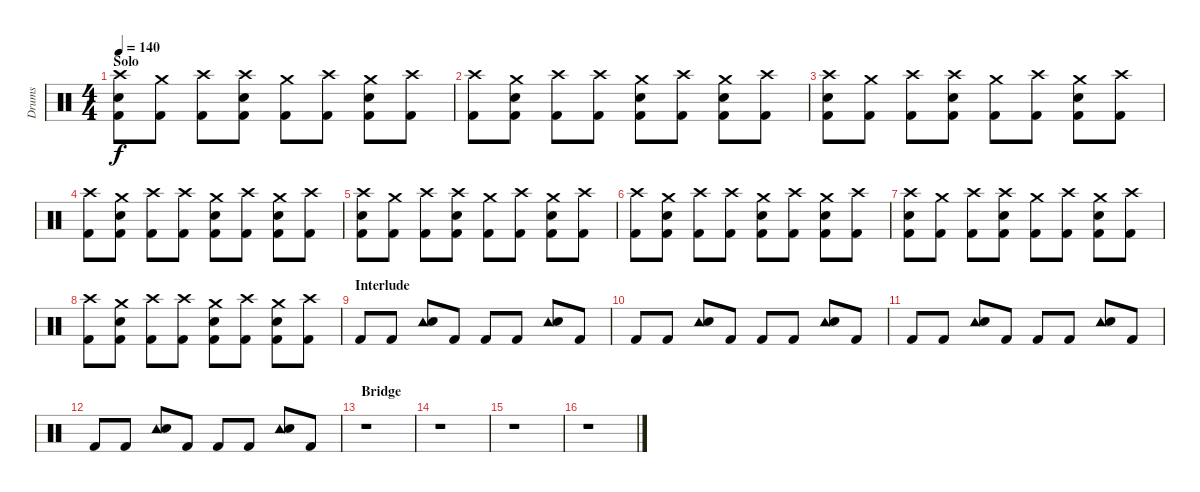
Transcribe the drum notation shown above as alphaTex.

\track ("Drums" "Drums") {instrument percussion}
\staff {score}
\articulation defaults
\ts (4 4)
\section ("" "Solo")
\tempo 140
\clef neutral
\ks c
("Crash high (hit)" "Electric Snare (hit)" "Kick (hit) 2").8{dy f} ("Crash medium (hit)" "Kick (hit) 2").8 ("Crash high (hit)" "Kick (hit) 2").8 ("Crash high (hit)" "Electric Snare (hit)" "Kick (hit) 2").8 ("Crash medium (hit)" "Kick (hit) 2").8 ("Crash high (hit)" "Kick (hit) 2").8 ("Crash medium (hit)" "Electric Snare (hit)" "Kick (hit) 2").8 ("Crash high (hit)" "Kick (hit) 2").8 |
("Crash high (hit)" "Kick (hit) 2").8 ("Crash medium (hit)" "Electric Snare (hit)" "Kick (hit) 2").8 ("Crash high (hit)" "Kick (hit) 2").8 ("Crash high (hit)" "Kick (hit) 2").8 ("Crash medium (hit)" "Electric Snare (hit)" "Kick (hit) 2").8 ("Crash high (hit)" "Kick (hit) 2").8 ("Crash medium (hit)" "Electric Snare (hit)" "Kick (hit) 2").8 ("Crash high (hit)" "Kick (hit) 2").8 |
("Crash high (hit)" "Electric Snare (hit)" "Kick (hit) 2").8 ("Crash medium (hit)" "Kick (hit) 2").8 ("Crash high (hit)" "Kick (hit) 2").8 ("Crash high (hit)" "Electric Snare (hit)" "Kick (hit) 2").8 ("Crash medium (hit)" "Kick (hit) 2").8 ("Crash high (hit)" "Kick (hit) 2").8 ("Crash medium (hit)" "Electric Snare (hit)" "Kick (hit) 2").8 ("Crash high (hit)" "Kick (hit) 2").8 |
("Crash high (hit)" "Kick (hit) 2").8 ("Crash medium (hit)" "Electric Snare (hit)" "Kick (hit) 2").8 ("Crash high (hit)" "Kick (hit) 2").8 ("Crash high (hit)" "Kick (hit) 2").8 ("Crash medium (hit)" "Electric Snare (hit)" "Kick (hit) 2").8 ("Crash high (hit)" "Kick (hit) 2").8 ("Crash medium (hit)" "Electric Snare (hit)" "Kick (hit) 2").8 ("Crash high (hit)" "Kick (hit) 2").8 |
("Crash high (hit)" "Electric Snare (hit)" "Kick (hit) 2").8 ("Crash medium (hit)" "Kick (hit) 2").8 ("Crash high (hit)" "Kick (hit) 2").8 ("Crash high (hit)" "Electric Snare (hit)" "Kick (hit) 2").8 ("Crash medium (hit)" "Kick (hit) 2").8 ("Crash high (hit)" "Kick (hit) 2").8 ("Crash medium (hit)" "Electric Snare (hit)" "Kick (hit) 2").8 ("Crash high (hit)" "Kick (hit) 2").8 |
("Crash high (hit)" "Kick (hit) 2").8 ("Crash medium (hit)" "Electric Snare (hit)" "Kick (hit) 2").8 ("Crash high (hit)" "Kick (hit) 2").8 ("Crash high (hit)" "Kick (hit) 2").8 ("Crash medium (hit)" "Electric Snare (hit)" "Kick (hit) 2").8 ("Crash high (hit)" "Kick (hit) 2").8 ("Crash medium (hit)" "Electric Snare (hit)" "Kick (hit) 2").8 ("Crash high (hit)" "Kick (hit) 2").8 |
("Crash high (hit)" "Electric Snare (hit)" "Kick (hit) 2").8 ("Crash medium (hit)" "Kick (hit) 2").8 ("Crash high (hit)" "Kick (hit) 2").8 ("Crash high (hit)" "Electric Snare (hit)" "Kick (hit) 2").8 ("Crash medium (hit)" "Kick (hit) 2").8 ("Crash high (hit)" "Kick (hit) 2").8 ("Crash medium (hit)" "Electric Snare (hit)" "Kick (hit) 2").8 ("Crash high (hit)" "Kick (hit) 2").8 |
("Crash high (hit)" "Kick (hit) 2").8 ("Crash medium (hit)" "Electric Snare (hit)" "Kick (hit) 2").8 ("Crash high (hit)" "Kick (hit) 2").8 ("Crash high (hit)" "Kick (hit) 2").8 ("Crash medium (hit)" "Electric Snare (hit)" "Kick (hit) 2").8 ("Crash high (hit)" "Kick (hit) 2").8 ("Crash medium (hit)" "Electric Snare (hit)" "Kick (hit) 2").8 ("Crash high (hit)" "Kick (hit) 2").8 |
\section ("" "Interlude")
"Kick (hit) 2".8 "Kick (hit) 2".8 ("Tambourine (hit)" "Electric Snare (hit)").8 "Kick (hit) 2".8 "Kick (hit) 2".8 "Kick (hit) 2".8 ("Tambourine (hit)" "Electric Snare (hit)").8 "Kick (hit) 2".8 |
"Kick (hit) 2".8 "Kick (hit) 2".8 ("Tambourine (hit)" "Electric Snare (hit)").8 "Kick (hit) 2".8 "Kick (hit) 2".8 "Kick (hit) 2".8 ("Tambourine (hit)" "Electric Snare (hit)").8 "Kick (hit) 2".8 |
"Kick (hit) 2".8 "Kick (hit) 2".8 ("Tambourine (hit)" "Electric Snare (hit)").8 "Kick (hit) 2".8 "Kick (hit) 2".8 "Kick (hit) 2".8 ("Tambourine (hit)" "Electric Snare (hit)").8 "Kick (hit) 2".8 |
"Kick (hit) 2".8 "Kick (hit) 2".8 ("Tambourine (hit)" "Electric Snare (hit)").8 "Kick (hit) 2".8 "Kick (hit) 2".8 "Kick (hit) 2".8 ("Tambourine (hit)" "Electric Snare (hit)").8 "Kick (hit) 2".8 |
\section ("" "Bridge")
r.1 |
r.1 |
r.1 |
r.1
